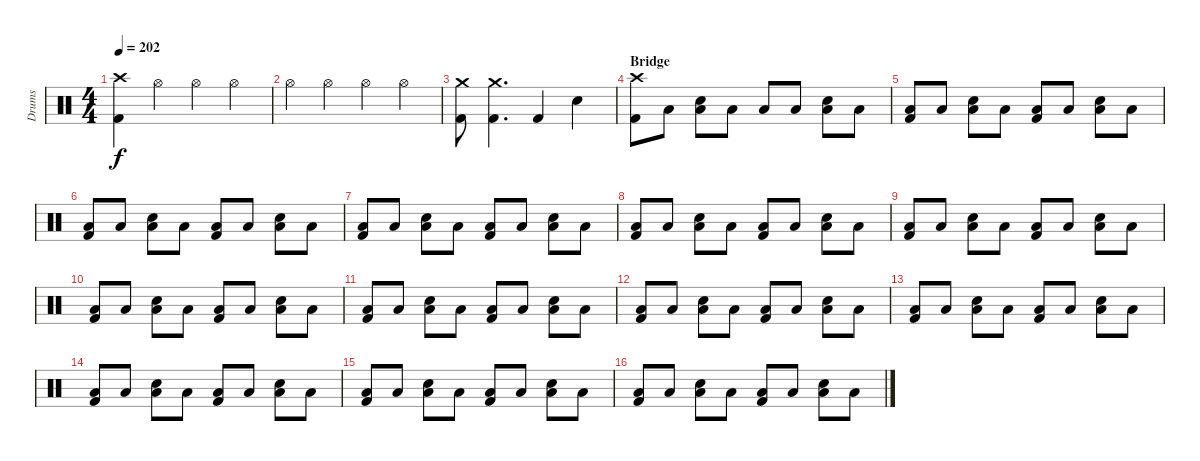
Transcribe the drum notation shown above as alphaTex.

\track ("Drums" "Drums") {instrument percussion}
\staff {score}
\articulation defaults
\ts (4 4)
\tempo 202
\clef neutral
\ks c
("Crash high (hit)" "Kick (hit) 2").4{dy f} "Hi-Hat (open)".4 "Hi-Hat (open)".4 "Hi-Hat (open)".4 |
"Hi-Hat (open)".4 "Hi-Hat (open)".4 "Hi-Hat (open)".4 "Hi-Hat (open)".4 |
("Crash medium (hit)" "Kick (hit) 2").8 ("Crash medium (hit)" "Kick (hit) 2").4{d} "Kick (hit) 2".4 "Electric Snare (hit)".4 |
\section ("" "Bridge")
("Crash high (hit)" "Kick (hit) 2").8 "Low Floor Tom (hit)".8 ("Low Floor Tom (hit)" "Electric Snare (hit)").8 "Low Floor Tom (hit)".8 "Low Floor Tom (hit)".8 "Low Floor Tom (hit)".8 ("Low Floor Tom (hit)" "Electric Snare (hit)").8 "Low Floor Tom (hit)".8 |
("Low Floor Tom (hit)" "Kick (hit) 2").8 "Low Floor Tom (hit)".8 ("Low Floor Tom (hit)" "Electric Snare (hit)").8 "Low Floor Tom (hit)".8 ("Low Floor Tom (hit)" "Kick (hit) 2").8 "Low Floor Tom (hit)".8 ("Low Floor Tom (hit)" "Electric Snare (hit)").8 "Low Floor Tom (hit)".8 |
("Low Floor Tom (hit)" "Kick (hit) 2").8 "Low Floor Tom (hit)".8 ("Low Floor Tom (hit)" "Electric Snare (hit)").8 "Low Floor Tom (hit)".8 ("Low Floor Tom (hit)" "Kick (hit) 2").8 "Low Floor Tom (hit)".8 ("Low Floor Tom (hit)" "Electric Snare (hit)").8 "Low Floor Tom (hit)".8 |
("Low Floor Tom (hit)" "Kick (hit) 2").8 "Low Floor Tom (hit)".8 ("Low Floor Tom (hit)" "Electric Snare (hit)").8 "Low Floor Tom (hit)".8 ("Low Floor Tom (hit)" "Kick (hit) 2").8 "Low Floor Tom (hit)".8 ("Low Floor Tom (hit)" "Electric Snare (hit)").8 "Low Floor Tom (hit)".8 |
("Low Floor Tom (hit)" "Kick (hit) 2").8 "Low Floor Tom (hit)".8 ("Low Floor Tom (hit)" "Electric Snare (hit)").8 "Low Floor Tom (hit)".8 ("Low Floor Tom (hit)" "Kick (hit) 2").8 "Low Floor Tom (hit)".8 ("Low Floor Tom (hit)" "Electric Snare (hit)").8 "Low Floor Tom (hit)".8 |
("Low Floor Tom (hit)" "Kick (hit) 2").8 "Low Floor Tom (hit)".8 ("Low Floor Tom (hit)" "Electric Snare (hit)").8 "Low Floor Tom (hit)".8 ("Low Floor Tom (hit)" "Kick (hit) 2").8 "Low Floor Tom (hit)".8 ("Low Floor Tom (hit)" "Electric Snare (hit)").8 "Low Floor Tom (hit)".8 |
("Low Floor Tom (hit)" "Kick (hit) 2").8 "Low Floor Tom (hit)".8 ("Low Floor Tom (hit)" "Electric Snare (hit)").8 "Low Floor Tom (hit)".8 ("Low Floor Tom (hit)" "Kick (hit) 2").8 "Low Floor Tom (hit)".8 ("Low Floor Tom (hit)" "Electric Snare (hit)").8 "Low Floor Tom (hit)".8 |
("Low Floor Tom (hit)" "Kick (hit) 2").8 "Low Floor Tom (hit)".8 ("Low Floor Tom (hit)" "Electric Snare (hit)").8 "Low Floor Tom (hit)".8 ("Low Floor Tom (hit)" "Kick (hit) 2").8 "Low Floor Tom (hit)".8 ("Low Floor Tom (hit)" "Electric Snare (hit)").8 "Low Floor Tom (hit)".8 |
("Low Floor Tom (hit)" "Kick (hit) 2").8 "Low Floor Tom (hit)".8 ("Low Floor Tom (hit)" "Electric Snare (hit)").8 "Low Floor Tom (hit)".8 ("Low Floor Tom (hit)" "Kick (hit) 2").8 "Low Floor Tom (hit)".8 ("Low Floor Tom (hit)" "Electric Snare (hit)").8 "Low Floor Tom (hit)".8 |
("Low Floor Tom (hit)" "Kick (hit) 2").8 "Low Floor Tom (hit)".8 ("Low Floor Tom (hit)" "Electric Snare (hit)").8 "Low Floor Tom (hit)".8 ("Low Floor Tom (hit)" "Kick (hit) 2").8 "Low Floor Tom (hit)".8 ("Low Floor Tom (hit)" "Electric Snare (hit)").8 "Low Floor Tom (hit)".8 |
("Low Floor Tom (hit)" "Kick (hit) 2").8 "Low Floor Tom (hit)".8 ("Low Floor Tom (hit)" "Electric Snare (hit)").8 "Low Floor Tom (hit)".8 ("Low Floor Tom (hit)" "Kick (hit) 2").8 "Low Floor Tom (hit)".8 ("Low Floor Tom (hit)" "Electric Snare (hit)").8 "Low Floor Tom (hit)".8 |
("Low Floor Tom (hit)" "Kick (hit) 2").8 "Low Floor Tom (hit)".8 ("Low Floor Tom (hit)" "Electric Snare (hit)").8 "Low Floor Tom (hit)".8 ("Low Floor Tom (hit)" "Kick (hit) 2").8 "Low Floor Tom (hit)".8 ("Low Floor Tom (hit)" "Electric Snare (hit)").8 "Low Floor Tom (hit)".8 |
("Low Floor Tom (hit)" "Kick (hit) 2").8 "Low Floor Tom (hit)".8 ("Low Floor Tom (hit)" "Electric Snare (hit)").8 "Low Floor Tom (hit)".8 ("Low Floor Tom (hit)" "Kick (hit) 2").8 "Low Floor Tom (hit)".8 ("Low Floor Tom (hit)" "Electric Snare (hit)").8 "Low Floor Tom (hit)".8
